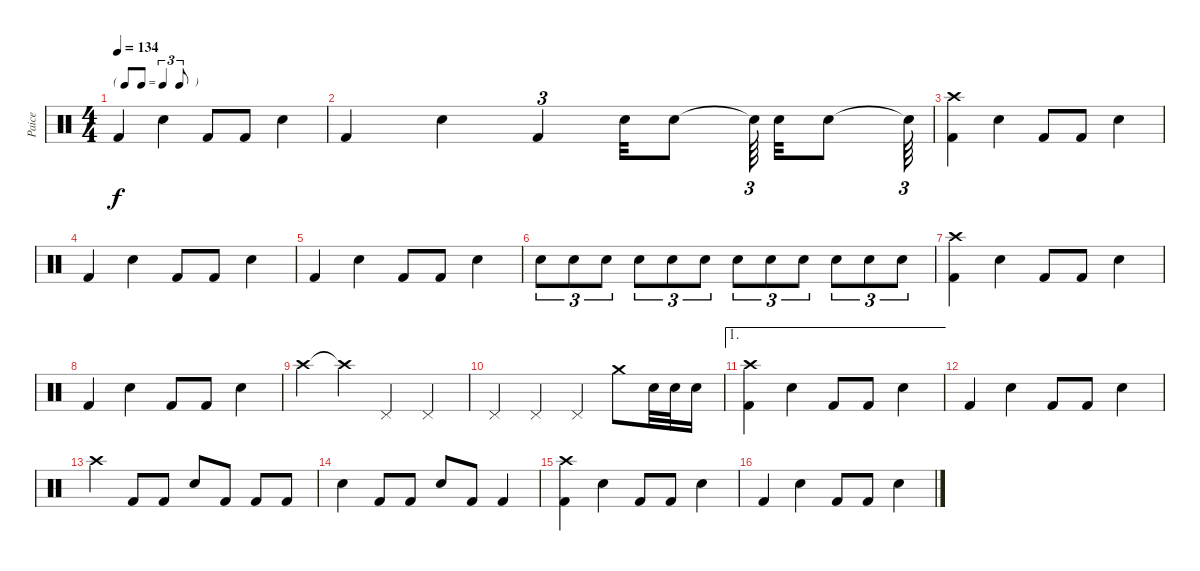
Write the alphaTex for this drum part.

\track ("Paice" "Paice") {instrument percussion}
\staff {score}
\articulation defaults
\ts (4 4)
\tf triplet8th
\tempo 134
\clef neutral
\ks c "Kick (hit) 2".4{dy f} "Electric Snare (hit)".4 "Kick (hit) 2".8 "Kick (hit) 2".8 "Electric Snare (hit)".4
|
"Kick (hit) 2".4 "Electric Snare (hit)".4 "Kick (hit) 2".4{tu (3 2)} "Electric Snare (hit)".32 "Electric Snare (hit)".8 "Electric Snare (hit)"{t}.64{tu (3 2) beam splitsecondary} "Electric Snare (hit)".32 "Electric Snare (hit)".8 "Electric Snare (hit)"{t}.64{tu (3 2)} |
("Kick (hit) 2" "Crash high (hit)").4 "Electric Snare (hit)".4 "Kick (hit) 2".8 "Kick (hit) 2".8 "Electric Snare (hit)".4 |
"Kick (hit) 2".4 "Electric Snare (hit)".4 "Kick (hit) 2".8 "Kick (hit) 2".8 "Electric Snare (hit)".4 |
"Kick (hit) 2".4 "Electric Snare (hit)".4 "Kick (hit) 2".8 "Kick (hit) 2".8 "Electric Snare (hit)".4 |
"Electric Snare (hit)".8{tu (3 2)} "Electric Snare (hit)".8{tu (3 2)} "Electric Snare (hit)".8{tu (3 2)} "Electric Snare (hit)".8{tu (3 2)} "Electric Snare (hit)".8{tu (3 2)} "Electric Snare (hit)".8{tu (3 2)} "Electric Snare (hit)".8{tu (3 2)} "Electric Snare (hit)".8{tu (3 2)} "Electric Snare (hit)".8{tu (3 2)} "Electric Snare (hit)".8{tu (3 2)} "Electric Snare (hit)".8{tu (3 2)} "Electric Snare (hit)".8{tu (3 2)} |
("Kick (hit) 2" "Crash high (hit)").4 "Electric Snare (hit)".4 "Kick (hit) 2".8 "Kick (hit) 2".8 "Electric Snare (hit)".4 |
"Kick (hit) 2".4 "Electric Snare (hit)".4 "Kick (hit) 2".8 "Kick (hit) 2".8 "Electric Snare (hit)".4 |
"Crash high (hit)".4 "Crash high (hit)"{t}.4 "Pedal Hi-Hat (hit)".4 "Pedal Hi-Hat (hit)".4 |
"Pedal Hi-Hat (hit)".4 "Pedal Hi-Hat (hit)".4 "Pedal Hi-Hat (hit)".4 "Crash medium (hit)".8 "Electric Snare (hit)".32 "Electric Snare (hit)".32 "Electric Snare (hit)".16 |
\ae 1
("Kick (hit) 2" "Crash high (hit)").4 "Electric Snare (hit)".4 "Kick (hit) 2".8 "Kick (hit) 2".8 "Electric Snare (hit)".4 |
"Kick (hit) 2".4 "Electric Snare (hit)".4 "Kick (hit) 2".8 "Kick (hit) 2".8 "Electric Snare (hit)".4 |
"Crash high (hit)".4 "Kick (hit) 2".8 "Kick (hit) 2".8 "Electric Snare (hit)".8 "Kick (hit) 2".8 "Kick (hit) 2".8 "Kick (hit) 2".8 |
"Electric Snare (hit)".4 "Kick (hit) 2".8 "Kick (hit) 2".8 "Electric Snare (hit)".8 "Kick (hit) 2".8 "Kick (hit) 2".4 |
("Kick (hit) 2" "Crash high (hit)").4 "Electric Snare (hit)".4 "Kick (hit) 2".8 "Kick (hit) 2".8 "Electric Snare (hit)".4 |
"Kick (hit) 2".4 "Electric Snare (hit)".4 "Kick (hit) 2".8 "Kick (hit) 2".8 "Electric Snare (hit)".4
